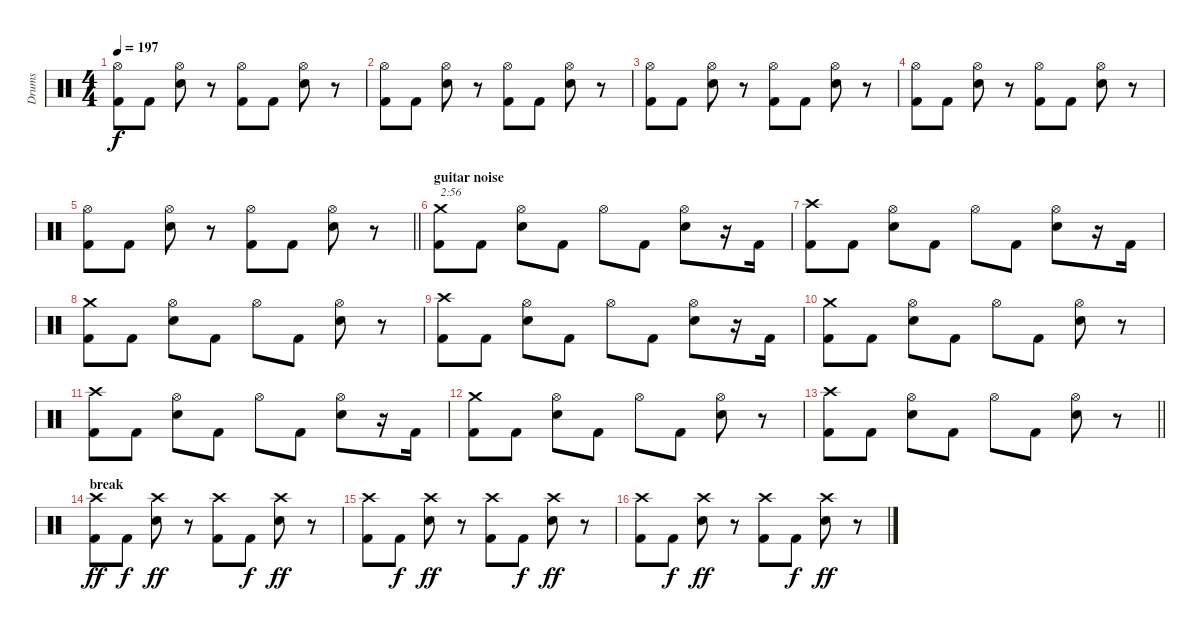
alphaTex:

\track ("Drums" "Drums") {instrument percussion}
\staff {score}
\articulation defaults
\ts (4 4)
\tempo 197
\clef neutral
\ks c
("Hi-Hat (open)" "Kick (hit) 2").8{dy f} "Kick (hit) 2".8 ("Hi-Hat (open)" "Snare (hit) 2").8 r.8 ("Hi-Hat (open)" "Kick (hit) 2").8 "Kick (hit) 2".8 ("Hi-Hat (open)" "Snare (hit) 2").8 r.8 |
("Hi-Hat (open)" "Kick (hit) 2").8 "Kick (hit) 2".8 ("Hi-Hat (open)" "Snare (hit) 2").8 r.8 ("Hi-Hat (open)" "Kick (hit) 2").8 "Kick (hit) 2".8 ("Hi-Hat (open)" "Snare (hit) 2").8 r.8 |
("Hi-Hat (open)" "Kick (hit) 2").8 "Kick (hit) 2".8 ("Hi-Hat (open)" "Snare (hit) 2").8 r.8 ("Hi-Hat (open)" "Kick (hit) 2").8 "Kick (hit) 2".8 ("Hi-Hat (open)" "Snare (hit) 2").8 r.8 |
("Hi-Hat (open)" "Kick (hit) 2").8 "Kick (hit) 2".8 ("Hi-Hat (open)" "Snare (hit) 2").8 r.8 ("Hi-Hat (open)" "Kick (hit) 2").8 "Kick (hit) 2".8 ("Hi-Hat (open)" "Snare (hit) 2").8 r.8 |
\barLineRight lightlight
("Hi-Hat (open)" "Kick (hit) 2").8 "Kick (hit) 2".8 ("Hi-Hat (open)" "Snare (hit) 2").8 r.8 ("Hi-Hat (open)" "Kick (hit) 2").8 "Kick (hit) 2".8 ("Hi-Hat (open)" "Snare (hit) 2").8 r.8 |
\section ("" "guitar noise")
("Crash medium (hit)" "Kick (hit) 2").8{txt "2:56"} "Kick (hit) 2".8 ("Hi-Hat (open)" "Snare (hit) 2").8 "Kick (hit) 2".8 "Hi-Hat (open)".8 "Kick (hit) 2".8 ("Hi-Hat (open)" "Snare (hit) 2").8 r.16 "Kick (hit) 2".16 |
("Crash high (hit)" "Kick (hit) 2").8 "Kick (hit) 2".8 ("Hi-Hat (open)" "Snare (hit) 2").8 "Kick (hit) 2".8 "Hi-Hat (open)".8 "Kick (hit) 2".8 ("Hi-Hat (open)" "Snare (hit) 2").8 r.16 "Kick (hit) 2".16 |
("Crash medium (hit)" "Kick (hit) 2").8 "Kick (hit) 2".8 ("Hi-Hat (open)" "Snare (hit) 2").8 "Kick (hit) 2".8 "Hi-Hat (open)".8 "Kick (hit) 2".8 ("Hi-Hat (open)" "Snare (hit) 2").8 r.8 |
("Crash high (hit)" "Kick (hit) 2").8 "Kick (hit) 2".8 ("Hi-Hat (open)" "Snare (hit) 2").8 "Kick (hit) 2".8 "Hi-Hat (open)".8 "Kick (hit) 2".8 ("Hi-Hat (open)" "Snare (hit) 2").8 r.16 "Kick (hit) 2".16 |
("Crash medium (hit)" "Kick (hit) 2").8 "Kick (hit) 2".8 ("Hi-Hat (open)" "Snare (hit) 2").8 "Kick (hit) 2".8 "Hi-Hat (open)".8 "Kick (hit) 2".8 ("Hi-Hat (open)" "Snare (hit) 2").8 r.8 |
("Crash high (hit)" "Kick (hit) 2").8 "Kick (hit) 2".8 ("Hi-Hat (open)" "Snare (hit) 2").8 "Kick (hit) 2".8 "Hi-Hat (open)".8 "Kick (hit) 2".8 ("Hi-Hat (open)" "Snare (hit) 2").8 r.16 "Kick (hit) 2".16 |
("Crash medium (hit)" "Kick (hit) 2").8 "Kick (hit) 2".8 ("Hi-Hat (open)" "Snare (hit) 2").8 "Kick (hit) 2".8 "Hi-Hat (open)".8 "Kick (hit) 2".8 ("Hi-Hat (open)" "Snare (hit) 2").8 r.8 |
\barLineRight lightlight
("Crash high (hit)" "Kick (hit) 2").8 "Kick (hit) 2".8 ("Hi-Hat (open)" "Snare (hit) 2").8 "Kick (hit) 2".8 "Hi-Hat (open)".8 "Kick (hit) 2".8 ("Hi-Hat (open)" "Snare (hit) 2").8 r.8 |
\section ("" "break")
("Crash high (hit)" "Kick (hit) 2").8{dy ff} "Kick (hit) 2".8{dy f} ("Crash high (hit)" "Snare (hit) 2").8{dy ff} r.8 ("Crash high (hit)" "Kick (hit) 2").8 "Kick (hit) 2".8{dy f} ("Crash high (hit)" "Snare (hit) 2").8{dy ff} r.8 |
("Crash high (hit)" "Kick (hit) 2").8 "Kick (hit) 2".8{dy f} ("Crash high (hit)" "Snare (hit) 2").8{dy ff} r.8 ("Crash high (hit)" "Kick (hit) 2").8 "Kick (hit) 2".8{dy f} ("Crash high (hit)" "Snare (hit) 2").8{dy ff} r.8 |
("Crash high (hit)" "Kick (hit) 2").8 "Kick (hit) 2".8{dy f} ("Crash high (hit)" "Snare (hit) 2").8{dy ff} r.8 ("Crash high (hit)" "Kick (hit) 2").8 "Kick (hit) 2".8{dy f} ("Crash high (hit)" "Snare (hit) 2").8{dy ff} r.8
